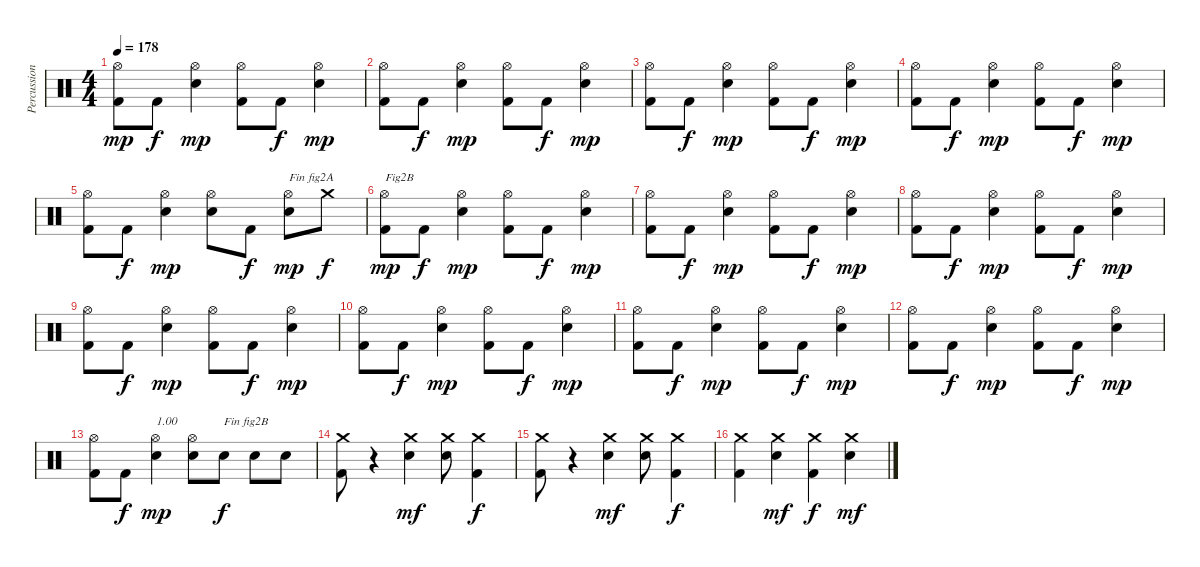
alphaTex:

\track ("Percussions" "Percussion") {instrument percussion}
\staff {score}
\articulation defaults
\ts (4 4)
\tempo 178
\clef neutral
\ks c
("Kick (hit) 2" "Hi-Hat (open)").8{dy mp} "Kick (hit) 2".8{dy f} ("Electric Snare (hit)" "Hi-Hat (open)").4{dy mp} ("Kick (hit) 2" "Hi-Hat (open)").8 "Kick (hit) 2".8{dy f} ("Electric Snare (hit)" "Hi-Hat (open)").4{dy mp} |
("Kick (hit) 2" "Hi-Hat (open)").8 "Kick (hit) 2".8{dy f} ("Electric Snare (hit)" "Hi-Hat (open)").4{dy mp} ("Kick (hit) 2" "Hi-Hat (open)").8 "Kick (hit) 2".8{dy f} ("Electric Snare (hit)" "Hi-Hat (open)").4{dy mp} |
("Kick (hit) 2" "Hi-Hat (open)").8 "Kick (hit) 2".8{dy f} ("Electric Snare (hit)" "Hi-Hat (open)").4{dy mp} ("Kick (hit) 2" "Hi-Hat (open)").8 "Kick (hit) 2".8{dy f} ("Electric Snare (hit)" "Hi-Hat (open)").4{dy mp} |
("Kick (hit) 2" "Hi-Hat (open)").8 "Kick (hit) 2".8{dy f} ("Electric Snare (hit)" "Hi-Hat (open)").4{dy mp} ("Kick (hit) 2" "Hi-Hat (open)").8 "Kick (hit) 2".8{dy f} ("Electric Snare (hit)" "Hi-Hat (open)").4{dy mp} |
("Kick (hit) 2" "Hi-Hat (open)").8 "Kick (hit) 2".8{dy f} ("Electric Snare (hit)" "Hi-Hat (open)").4{dy mp} ("Electric Snare (hit)" "Hi-Hat (open)").8 "Kick (hit) 2".8{dy f} ("Electric Snare (hit)" "Hi-Hat (open)").8{txt "Fin fig2A" dy mp} "Crash medium (hit)".8{dy f} |
("Kick (hit) 2" "Hi-Hat (open)").8{txt "Fig2B" dy mp} "Kick (hit) 2".8{dy f} ("Electric Snare (hit)" "Hi-Hat (open)").4{dy mp} ("Kick (hit) 2" "Hi-Hat (open)").8 "Kick (hit) 2".8{dy f} ("Electric Snare (hit)" "Hi-Hat (open)").4{dy mp} |
("Kick (hit) 2" "Hi-Hat (open)").8 "Kick (hit) 2".8{dy f} ("Electric Snare (hit)" "Hi-Hat (open)").4{dy mp} ("Kick (hit) 2" "Hi-Hat (open)").8 "Kick (hit) 2".8{dy f} ("Electric Snare (hit)" "Hi-Hat (open)").4{dy mp} |
("Kick (hit) 2" "Hi-Hat (open)").8 "Kick (hit) 2".8{dy f} ("Electric Snare (hit)" "Hi-Hat (open)").4{dy mp} ("Kick (hit) 2" "Hi-Hat (open)").8 "Kick (hit) 2".8{dy f} ("Electric Snare (hit)" "Hi-Hat (open)").4{dy mp} |
("Kick (hit) 2" "Hi-Hat (open)").8 "Kick (hit) 2".8{dy f} ("Electric Snare (hit)" "Hi-Hat (open)").4{dy mp} ("Kick (hit) 2" "Hi-Hat (open)").8 "Kick (hit) 2".8{dy f} ("Electric Snare (hit)" "Hi-Hat (open)").4{dy mp} |
("Kick (hit) 2" "Hi-Hat (open)").8 "Kick (hit) 2".8{dy f} ("Electric Snare (hit)" "Hi-Hat (open)").4{dy mp} ("Kick (hit) 2" "Hi-Hat (open)").8 "Kick (hit) 2".8{dy f} ("Electric Snare (hit)" "Hi-Hat (open)").4{dy mp} |
("Kick (hit) 2" "Hi-Hat (open)").8 "Kick (hit) 2".8{dy f} ("Electric Snare (hit)" "Hi-Hat (open)").4{dy mp} ("Kick (hit) 2" "Hi-Hat (open)").8 "Kick (hit) 2".8{dy f} ("Electric Snare (hit)" "Hi-Hat (open)").4{dy mp} |
("Kick (hit) 2" "Hi-Hat (open)").8 "Kick (hit) 2".8{dy f} ("Electric Snare (hit)" "Hi-Hat (open)").4{dy mp} ("Kick (hit) 2" "Hi-Hat (open)").8 "Kick (hit) 2".8{dy f} ("Electric Snare (hit)" "Hi-Hat (open)").4{dy mp} |
("Kick (hit) 2" "Hi-Hat (open)").8 "Kick (hit) 2".8{dy f} ("Electric Snare (hit)" "Hi-Hat (open)").4{txt "1.00" dy mp} ("Electric Snare (hit)" "Hi-Hat (open)").8 "Electric Snare (hit)".8{txt "Fin fig2B" dy f} "Electric Snare (hit)".8 "Electric Snare (hit)".8 |
("Kick (hit) 2" "Crash medium (hit)").8 r.4 ("Electric Snare (hit)" "Crash medium (hit)").4{dy mf} ("Electric Snare (hit)" "Crash medium (hit)").8 ("Kick (hit) 2" "Crash medium (hit)").4{dy f} |
("Kick (hit) 2" "Crash medium (hit)").8 r.4 ("Electric Snare (hit)" "Crash medium (hit)").4{dy mf} ("Electric Snare (hit)" "Crash medium (hit)").8 ("Kick (hit) 2" "Crash medium (hit)").4{dy f} |
("Kick (hit) 2" "Crash medium (hit)").4 ("Electric Snare (hit)" "Crash medium (hit)").4{dy mf} ("Kick (hit) 2" "Crash medium (hit)").4{dy f} ("Electric Snare (hit)" "Crash medium (hit)").4{dy mf}
